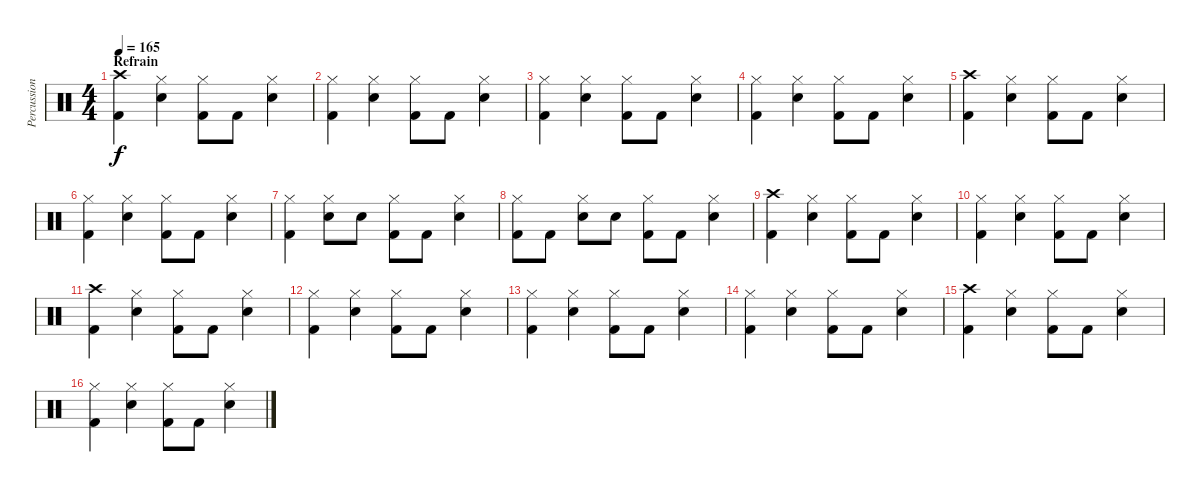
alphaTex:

\track ("Percussions" "Percussion") {instrument percussion}
\staff {score}
\articulation defaults
\ts (4 4)
\section ("" "Refrain")
\tempo 165
\clef neutral
\ks c
("Crash high (hit)" "Kick (hit) 2").4{dy f} ("Hi-Hat (closed)" "Electric Snare (hit)").4 ("Hi-Hat (closed)" "Kick (hit) 2").8 "Kick (hit) 2".8 ("Hi-Hat (closed)" "Electric Snare (hit)").4 |
("Hi-Hat (closed)" "Kick (hit) 2").4 ("Hi-Hat (closed)" "Electric Snare (hit)").4 ("Hi-Hat (closed)" "Kick (hit) 2").8 "Kick (hit) 2".8 ("Hi-Hat (closed)" "Electric Snare (hit)").4 |
("Hi-Hat (closed)" "Kick (hit) 2").4 ("Hi-Hat (closed)" "Electric Snare (hit)").4 ("Hi-Hat (closed)" "Kick (hit) 2").8 "Kick (hit) 2".8 ("Hi-Hat (closed)" "Electric Snare (hit)").4 |
("Hi-Hat (closed)" "Kick (hit) 2").4 ("Hi-Hat (closed)" "Electric Snare (hit)").4 ("Hi-Hat (closed)" "Kick (hit) 2").8 "Kick (hit) 2".8 ("Hi-Hat (closed)" "Electric Snare (hit)").4 |
("Crash high (hit)" "Kick (hit) 2").4 ("Hi-Hat (closed)" "Electric Snare (hit)").4 ("Hi-Hat (closed)" "Kick (hit) 2").8 "Kick (hit) 2".8 ("Hi-Hat (closed)" "Electric Snare (hit)").4 |
("Hi-Hat (closed)" "Kick (hit) 2").4 ("Hi-Hat (closed)" "Electric Snare (hit)").4 ("Hi-Hat (closed)" "Kick (hit) 2").8 "Kick (hit) 2".8 ("Hi-Hat (closed)" "Electric Snare (hit)").4 |
("Hi-Hat (closed)" "Kick (hit) 2").4 ("Hi-Hat (closed)" "Electric Snare (hit)").8 "Electric Snare (hit)".8 ("Hi-Hat (closed)" "Kick (hit) 2").8 "Kick (hit) 2".8 ("Hi-Hat (closed)" "Electric Snare (hit)").4 |
("Hi-Hat (closed)" "Kick (hit) 2").8 "Kick (hit) 2".8 ("Hi-Hat (closed)" "Electric Snare (hit)").8 "Electric Snare (hit)".8 ("Hi-Hat (closed)" "Kick (hit) 2").8 "Kick (hit) 2".8 ("Hi-Hat (closed)" "Electric Snare (hit)").4 |
("Crash high (hit)" "Kick (hit) 2").4 ("Hi-Hat (closed)" "Electric Snare (hit)").4 ("Hi-Hat (closed)" "Kick (hit) 2").8 "Kick (hit) 2".8 ("Hi-Hat (closed)" "Electric Snare (hit)").4 |
("Hi-Hat (closed)" "Kick (hit) 2").4 ("Hi-Hat (closed)" "Electric Snare (hit)").4 ("Hi-Hat (closed)" "Kick (hit) 2").8 "Kick (hit) 2".8 ("Hi-Hat (closed)" "Electric Snare (hit)").4 |
("Crash high (hit)" "Kick (hit) 2").4 ("Hi-Hat (closed)" "Electric Snare (hit)").4 ("Hi-Hat (closed)" "Kick (hit) 2").8 "Kick (hit) 2".8 ("Hi-Hat (closed)" "Electric Snare (hit)").4 |
("Hi-Hat (closed)" "Kick (hit) 2").4 ("Hi-Hat (closed)" "Electric Snare (hit)").4 ("Hi-Hat (closed)" "Kick (hit) 2").8 "Kick (hit) 2".8 ("Hi-Hat (closed)" "Electric Snare (hit)").4 |
("Hi-Hat (closed)" "Kick (hit) 2").4 ("Hi-Hat (closed)" "Electric Snare (hit)").4 ("Hi-Hat (closed)" "Kick (hit) 2").8 "Kick (hit) 2".8 ("Hi-Hat (closed)" "Electric Snare (hit)").4 |
("Hi-Hat (closed)" "Kick (hit) 2").4 ("Hi-Hat (closed)" "Electric Snare (hit)").4 ("Hi-Hat (closed)" "Kick (hit) 2").8 "Kick (hit) 2".8 ("Hi-Hat (closed)" "Electric Snare (hit)").4 |
("Crash high (hit)" "Kick (hit) 2").4 ("Hi-Hat (closed)" "Electric Snare (hit)").4 ("Hi-Hat (closed)" "Kick (hit) 2").8 "Kick (hit) 2".8 ("Hi-Hat (closed)" "Electric Snare (hit)").4 |
("Hi-Hat (closed)" "Kick (hit) 2").4 ("Hi-Hat (closed)" "Electric Snare (hit)").4 ("Hi-Hat (closed)" "Kick (hit) 2").8 "Kick (hit) 2".8 ("Hi-Hat (closed)" "Electric Snare (hit)").4
